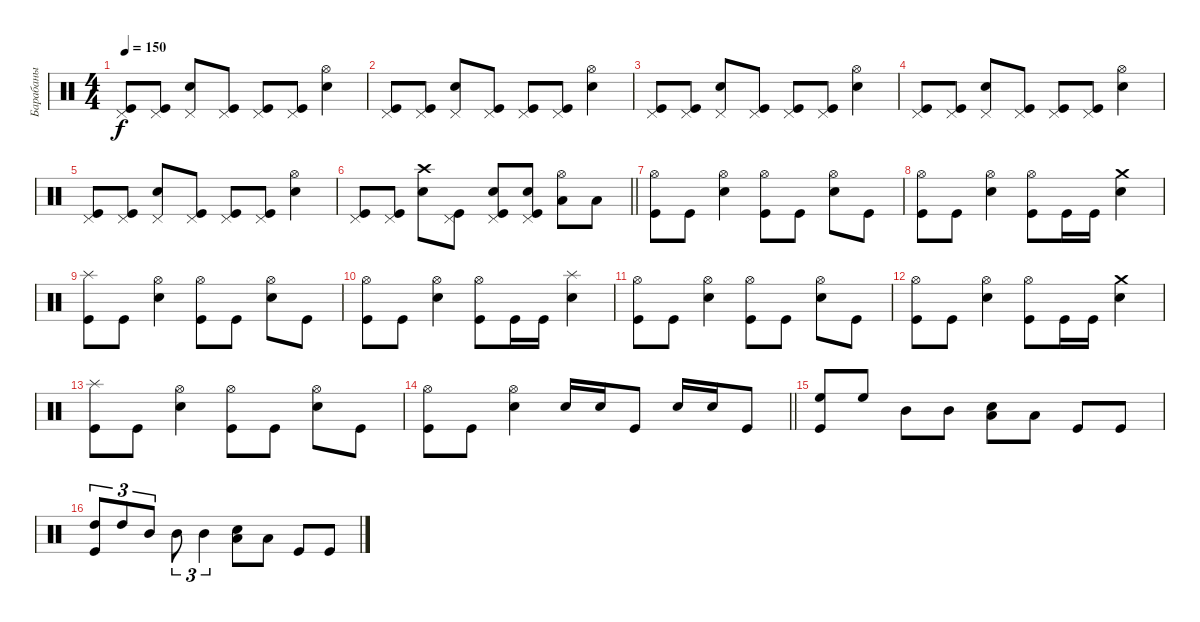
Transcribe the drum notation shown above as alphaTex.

\track ("Барабаны" "Барабаны") {instrument percussion}
\staff {score}
\articulation defaults
\ts (4 4)
\tempo 150
\clef neutral
\ks c
("Pedal Hi-Hat (hit)" "Kick (hit)").8{dy f} ("Pedal Hi-Hat (hit)" "Kick (hit)").8 ("Pedal Hi-Hat (hit)" "Electric Snare (hit)").8 ("Pedal Hi-Hat (hit)" "Kick (hit)").8 ("Pedal Hi-Hat (hit)" "Kick (hit)").8 ("Pedal Hi-Hat (hit)" "Kick (hit)").8 ("Hi-Hat (open)" "Electric Snare (hit)").4 |
("Pedal Hi-Hat (hit)" "Kick (hit)").8 ("Pedal Hi-Hat (hit)" "Kick (hit)").8 ("Pedal Hi-Hat (hit)" "Electric Snare (hit)").8 ("Pedal Hi-Hat (hit)" "Kick (hit)").8 ("Pedal Hi-Hat (hit)" "Kick (hit)").8 ("Pedal Hi-Hat (hit)" "Kick (hit)").8 ("Hi-Hat (open)" "Electric Snare (hit)").4 |
("Pedal Hi-Hat (hit)" "Kick (hit)").8 ("Pedal Hi-Hat (hit)" "Kick (hit)").8 ("Pedal Hi-Hat (hit)" "Electric Snare (hit)").8 ("Pedal Hi-Hat (hit)" "Kick (hit)").8 ("Pedal Hi-Hat (hit)" "Kick (hit)").8 ("Pedal Hi-Hat (hit)" "Kick (hit)").8 ("Hi-Hat (open)" "Electric Snare (hit)").4 |
("Pedal Hi-Hat (hit)" "Kick (hit)").8 ("Pedal Hi-Hat (hit)" "Kick (hit)").8 ("Pedal Hi-Hat (hit)" "Electric Snare (hit)").8 ("Pedal Hi-Hat (hit)" "Kick (hit)").8 ("Pedal Hi-Hat (hit)" "Kick (hit)").8 ("Pedal Hi-Hat (hit)" "Kick (hit)").8 ("Hi-Hat (open)" "Electric Snare (hit)").4 |
("Pedal Hi-Hat (hit)" "Kick (hit)").8 ("Pedal Hi-Hat (hit)" "Kick (hit)").8 ("Pedal Hi-Hat (hit)" "Electric Snare (hit)").8 ("Pedal Hi-Hat (hit)" "Kick (hit)").8 ("Pedal Hi-Hat (hit)" "Kick (hit)").8 ("Pedal Hi-Hat (hit)" "Kick (hit)").8 ("Hi-Hat (open)" "Electric Snare (hit)").4 |
\barLineRight lightlight
("Pedal Hi-Hat (hit)" "Kick (hit)").8 ("Pedal Hi-Hat (hit)" "Kick (hit)").8 ("Crash high (hit)" "Electric Snare (hit)").8 ("Pedal Hi-Hat (hit)" "Kick (hit)").8 ("Pedal Hi-Hat (hit)" "Snare (hit) 2" "Kick (hit)").8 ("Pedal Hi-Hat (hit)" "Snare (hit) 2" "Kick (hit)").8 ("Hi-Hat (open)" "Low Tom (hit)").8 "Low Tom (hit)".8 |
("Hi-Hat (open)" "Kick (hit)").8 "Kick (hit)".8 ("Hi-Hat (open)" "Electric Snare (hit)").4 ("Hi-Hat (open)" "Kick (hit)").8 "Kick (hit)".8 ("Hi-Hat (open)" "Electric Snare (hit)").8 "Kick (hit)".8 |
("Hi-Hat (open)" "Kick (hit)").8 "Kick (hit)".8 ("Hi-Hat (open)" "Electric Snare (hit)").4 ("Hi-Hat (open)" "Kick (hit)").8 "Kick (hit)".16 "Kick (hit)".16 ("Crash medium (hit)" "Electric Snare (hit)").4 |
("Splash (hit)" "Kick (hit)").8 "Kick (hit)".8 ("Hi-Hat (open)" "Electric Snare (hit)").4 ("Hi-Hat (open)" "Kick (hit)").8 "Kick (hit)".8 ("Hi-Hat (open)" "Electric Snare (hit)").8 "Kick (hit)".8 |
("Hi-Hat (open)" "Kick (hit)").8 "Kick (hit)".8 ("Hi-Hat (open)" "Electric Snare (hit)").4 ("Hi-Hat (open)" "Kick (hit)").8 "Kick (hit)".16 "Kick (hit)".16 ("Splash (hit)" "Electric Snare (hit)").4 |
("Hi-Hat (open)" "Kick (hit)").8 "Kick (hit)".8 ("Hi-Hat (open)" "Electric Snare (hit)").4 ("Hi-Hat (open)" "Kick (hit)").8 "Kick (hit)".8 ("Hi-Hat (open)" "Electric Snare (hit)").8 "Kick (hit)".8 |
("Hi-Hat (open)" "Kick (hit)").8 "Kick (hit)".8 ("Hi-Hat (open)" "Electric Snare (hit)").4 ("Hi-Hat (open)" "Kick (hit)").8 "Kick (hit)".16 "Kick (hit)".16 ("Crash medium (hit)" "Electric Snare (hit)").4 |
("Splash (hit)" "Kick (hit)").8 "Kick (hit)".8 ("Hi-Hat (open)" "Electric Snare (hit)").4 ("Hi-Hat (open)" "Kick (hit)").8 "Kick (hit)".8 ("Hi-Hat (open)" "Electric Snare (hit)").8 "Kick (hit)".8 |
\barLineRight lightlight
("Hi-Hat (open)" "Kick (hit)").8 "Kick (hit)".8 ("Hi-Hat (open)" "Electric Snare (hit)").4 "Electric Snare (hit)".16 "Electric Snare (hit)".16 "Kick (hit)".8 "Electric Snare (hit)".16 "Electric Snare (hit)".16 "Kick (hit)".8 |
("High Floor Tom (hit)" "Kick (hit)").8 "High Floor Tom (hit)".8 "Mid Tom (hit)".8 "Mid Tom (hit)".8 ("Electric Snare (hit)" "Low Tom (hit)").8 "Low Tom (hit)".8 "Kick (hit)".8 "Kick (hit)".8 |
("High Tom (hit)" "Kick (hit)").8{tu (3 2)} "High Tom (hit)".8{tu (3 2)} "Mid Tom (hit)".8{tu (3 2)} "Mid Tom (hit)".8{tu (3 2)} "Mid Tom (hit)".4{tu (3 2)} ("Electric Snare (hit)" "Low Tom (hit)").8 "Low Tom (hit)".8 "Kick (hit)".8 "Kick (hit)".8
